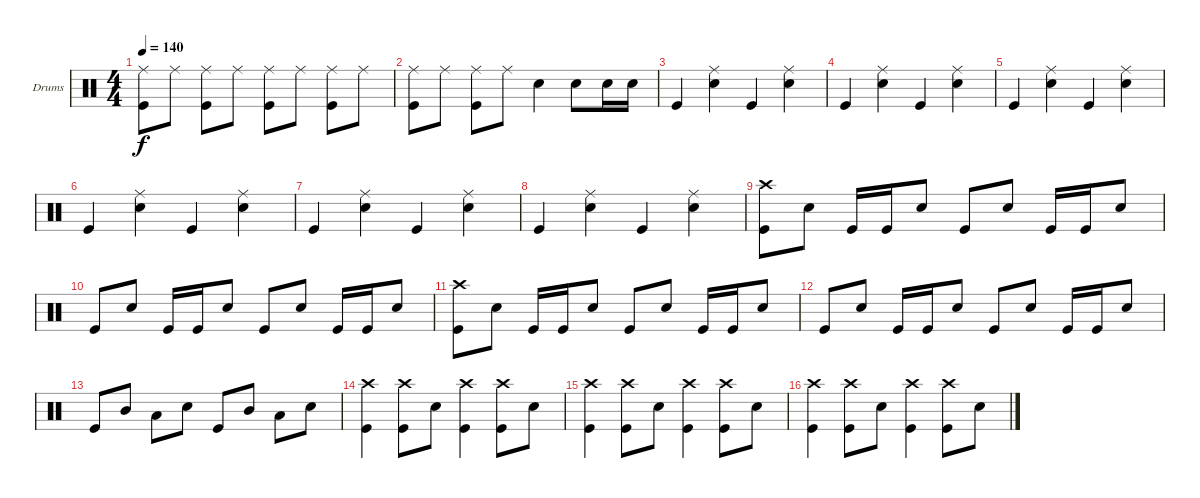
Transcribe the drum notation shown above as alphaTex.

\bracketExtendMode groupsimilarinstruments
\firstSystemTrackNameOrientation horizontal
\otherSystemsTrackNameOrientation horizontal
\track ("Ryan Seamen" "Drums") {instrument percussion}
\staff {score}
\articulation defaults
\ts (4 4)
\tempo 140
\clef neutral
\ks c
("Ride (middle)" "Kick (hit)").8{dy f} "Ride (middle)".8 ("Ride (middle)" "Kick (hit)").8 "Ride (middle)".8 ("Ride (middle)" "Kick (hit)").8 "Ride (middle)".8 ("Ride (middle)" "Kick (hit)").8 "Ride (middle)".8 |
("Ride (middle)" "Kick (hit)").8 "Ride (middle)".8 ("Ride (middle)" "Kick (hit)").8 "Ride (middle)".8 "Snare (hit) 2".4 "Snare (hit) 2".8 "Snare (hit) 2".16 "Snare (hit) 2".16 |
"Kick (hit)".4 ("Ride (middle)" "Snare (hit) 2").4 "Kick (hit)".4 ("Ride (middle)" "Snare (hit) 2").4 |
"Kick (hit)".4 ("Ride (middle)" "Snare (hit) 2").4 "Kick (hit)".4 ("Ride (middle)" "Snare (hit) 2").4 |
"Kick (hit)".4 ("Ride (middle)" "Snare (hit) 2").4 "Kick (hit)".4 ("Ride (middle)" "Snare (hit) 2").4 |
"Kick (hit)".4 ("Ride (middle)" "Snare (hit) 2").4 "Kick (hit)".4 ("Ride (middle)" "Snare (hit) 2").4 |
"Kick (hit)".4 ("Ride (middle)" "Snare (hit) 2").4 "Kick (hit)".4 ("Ride (middle)" "Snare (hit) 2").4 |
"Kick (hit)".4 ("Ride (middle)" "Snare (hit) 2").4 "Kick (hit)".4 ("Ride (middle)" "Snare (hit) 2").4 |
("Crash high (hit)" "Kick (hit)").8 "Snare (hit) 2".8 "Kick (hit)".16 "Kick (hit)".16 "Snare (hit) 2".8 "Kick (hit)".8 "Snare (hit) 2".8 "Kick (hit)".16 "Kick (hit)".16 "Snare (hit) 2".8 |
"Kick (hit)".8 "Snare (hit) 2".8 "Kick (hit)".16 "Kick (hit)".16 "Snare (hit) 2".8 "Kick (hit)".8 "Snare (hit) 2".8 "Kick (hit)".16 "Kick (hit)".16 "Snare (hit) 2".8 |
("Crash high (hit)" "Kick (hit)").8 "Snare (hit) 2".8 "Kick (hit)".16 "Kick (hit)".16 "Snare (hit) 2".8 "Kick (hit)".8 "Snare (hit) 2".8 "Kick (hit)".16 "Kick (hit)".16 "Snare (hit) 2".8 |
"Kick (hit)".8 "Snare (hit) 2".8 "Kick (hit)".16 "Kick (hit)".16 "Snare (hit) 2".8 "Kick (hit)".8 "Snare (hit) 2".8 "Kick (hit)".16 "Kick (hit)".16 "Snare (hit) 2".8 |
"Kick (hit)".8 "Mid Tom (hit)".8 "Low Tom (hit)".8 "Snare (hit) 2".8 "Kick (hit)".8 "Mid Tom (hit)".8 "Low Tom (hit)".8 "Snare (hit) 2".8 |
("Crash high (hit)" "Kick (hit)").4 ("Crash high (hit)" "Kick (hit)").8 "Snare (hit) 2".8 ("Crash high (hit)" "Kick (hit)").4 ("Crash high (hit)" "Kick (hit)").8 "Snare (hit) 2".8 |
("Crash high (hit)" "Kick (hit)").4 ("Crash high (hit)" "Kick (hit)").8 "Snare (hit) 2".8 ("Crash high (hit)" "Kick (hit)").4 ("Crash high (hit)" "Kick (hit)").8 "Snare (hit) 2".8 |
("Crash high (hit)" "Kick (hit)").4 ("Crash high (hit)" "Kick (hit)").8 "Snare (hit) 2".8 ("Crash high (hit)" "Kick (hit)").4 ("Crash high (hit)" "Kick (hit)").8 "Snare (hit) 2".8
